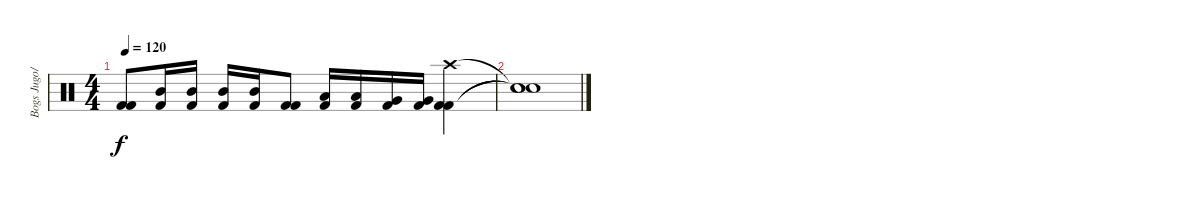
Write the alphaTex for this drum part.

\track ("Bogs Jugo/Drums" "Bogs Jugo/") {instrument percussion}
\staff {score}
\articulation defaults
\ts (4 4)
\tempo 120
\clef neutral
\ks c
("Kick (hit) 2" "Kick (hit) 2").8{dy f} ("Mid Tom (hit)" "Kick (hit) 2").16 ("Mid Tom (hit)" "Kick (hit) 2").16 ("Mid Tom (hit)" "Kick (hit) 2").16 ("Mid Tom (hit)" "Kick (hit) 2").16 ("Kick (hit) 2" "Kick (hit) 2").8 ("Low Tom (hit)" "Kick (hit) 2").16 ("Low Tom (hit)" "Kick (hit) 2").16 ("Very Low Tom (hit)" "Kick (hit) 2").16 ("Very Low Tom (hit)" "Kick (hit) 2").16 ("Kick (hit) 2" "Kick (hit) 2" "Crash high (hit)").4 |
("Snare (hit)"{t} "Snare (hit)"{t} "Snare (hit)"{t}).1
